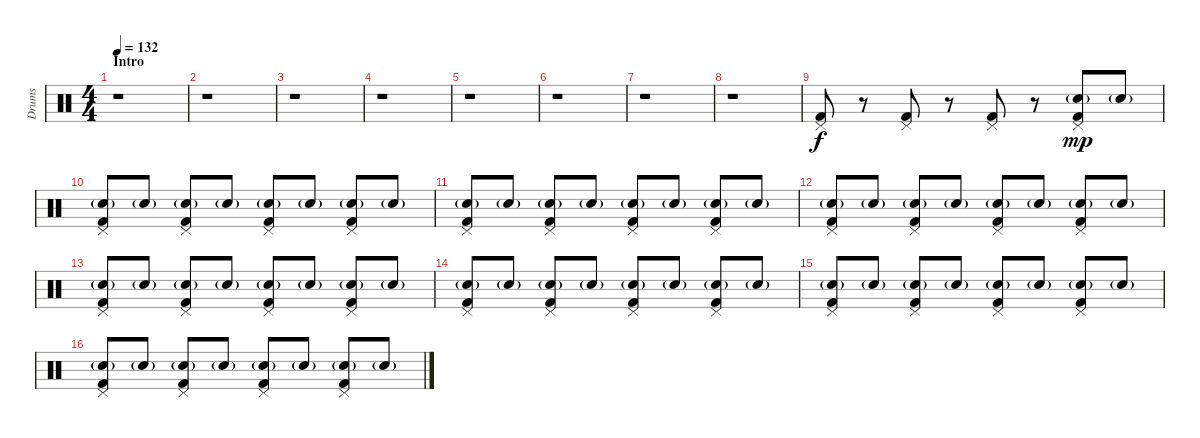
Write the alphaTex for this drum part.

\track ("Drums" "Drums") {instrument percussion}
\staff {score}
\articulation defaults
\ts (4 4)
\section ("" "Intro")
\tempo 132
\clef neutral
\ks c
r.1{dy f} |
r.1 |
r.1 |
r.1 |
r.1 |
r.1 |
r.1 |
r.1 |
("Kick (hit) 2" "Pedal Hi-Hat (hit)").8 r.8 ("Kick (hit) 2" "Pedal Hi-Hat (hit)").8 r.8 ("Kick (hit) 2" "Pedal Hi-Hat (hit)").8 r.8 ("Snare (hit) 2"{g} "Kick (hit) 2" "Pedal Hi-Hat (hit)").8{dy mp} "Snare (hit) 2"{g}.8 |
("Snare (hit) 2"{g} "Kick (hit) 2" "Pedal Hi-Hat (hit)").8 "Snare (hit) 2"{g}.8 ("Snare (hit) 2"{g} "Kick (hit) 2" "Pedal Hi-Hat (hit)").8 "Snare (hit) 2"{g}.8 ("Snare (hit) 2"{g} "Kick (hit) 2" "Pedal Hi-Hat (hit)").8 "Snare (hit) 2"{g}.8 ("Snare (hit) 2"{g} "Kick (hit) 2" "Pedal Hi-Hat (hit)").8 "Snare (hit) 2"{g}.8 |
("Snare (hit) 2"{g} "Kick (hit) 2" "Pedal Hi-Hat (hit)").8 "Snare (hit) 2"{g}.8 ("Snare (hit) 2"{g} "Kick (hit) 2" "Pedal Hi-Hat (hit)").8 "Snare (hit) 2"{g}.8 ("Snare (hit) 2"{g} "Kick (hit) 2" "Pedal Hi-Hat (hit)").8 "Snare (hit) 2"{g}.8 ("Snare (hit) 2"{g} "Kick (hit) 2" "Pedal Hi-Hat (hit)").8 "Snare (hit) 2"{g}.8 |
("Snare (hit) 2"{g} "Kick (hit) 2" "Pedal Hi-Hat (hit)").8 "Snare (hit) 2"{g}.8 ("Snare (hit) 2"{g} "Kick (hit) 2" "Pedal Hi-Hat (hit)").8 "Snare (hit) 2"{g}.8 ("Snare (hit) 2"{g} "Kick (hit) 2" "Pedal Hi-Hat (hit)").8 "Snare (hit) 2"{g}.8 ("Snare (hit) 2"{g} "Kick (hit) 2" "Pedal Hi-Hat (hit)").8 "Snare (hit) 2"{g}.8 |
("Snare (hit) 2"{g} "Kick (hit) 2" "Pedal Hi-Hat (hit)").8 "Snare (hit) 2"{g}.8 ("Snare (hit) 2"{g} "Kick (hit) 2" "Pedal Hi-Hat (hit)").8 "Snare (hit) 2"{g}.8 ("Snare (hit) 2"{g} "Kick (hit) 2" "Pedal Hi-Hat (hit)").8 "Snare (hit) 2"{g}.8 ("Snare (hit) 2"{g} "Kick (hit) 2" "Pedal Hi-Hat (hit)").8 "Snare (hit) 2"{g}.8 |
("Snare (hit) 2"{g} "Kick (hit) 2" "Pedal Hi-Hat (hit)").8 "Snare (hit) 2"{g}.8 ("Snare (hit) 2"{g} "Kick (hit) 2" "Pedal Hi-Hat (hit)").8 "Snare (hit) 2"{g}.8 ("Snare (hit) 2"{g} "Kick (hit) 2" "Pedal Hi-Hat (hit)").8 "Snare (hit) 2"{g}.8 ("Snare (hit) 2"{g} "Kick (hit) 2" "Pedal Hi-Hat (hit)").8 "Snare (hit) 2"{g}.8 |
("Snare (hit) 2"{g} "Kick (hit) 2" "Pedal Hi-Hat (hit)").8 "Snare (hit) 2"{g}.8 ("Snare (hit) 2"{g} "Kick (hit) 2" "Pedal Hi-Hat (hit)").8 "Snare (hit) 2"{g}.8 ("Snare (hit) 2"{g} "Kick (hit) 2" "Pedal Hi-Hat (hit)").8 "Snare (hit) 2"{g}.8 ("Snare (hit) 2"{g} "Kick (hit) 2" "Pedal Hi-Hat (hit)").8 "Snare (hit) 2"{g}.8 |
("Snare (hit) 2"{g} "Kick (hit) 2" "Pedal Hi-Hat (hit)").8 "Snare (hit) 2"{g}.8 ("Snare (hit) 2"{g} "Kick (hit) 2" "Pedal Hi-Hat (hit)").8 "Snare (hit) 2"{g}.8 ("Snare (hit) 2"{g} "Kick (hit) 2" "Pedal Hi-Hat (hit)").8 "Snare (hit) 2"{g}.8 ("Snare (hit) 2"{g} "Kick (hit) 2" "Pedal Hi-Hat (hit)").8 "Snare (hit) 2"{g}.8
